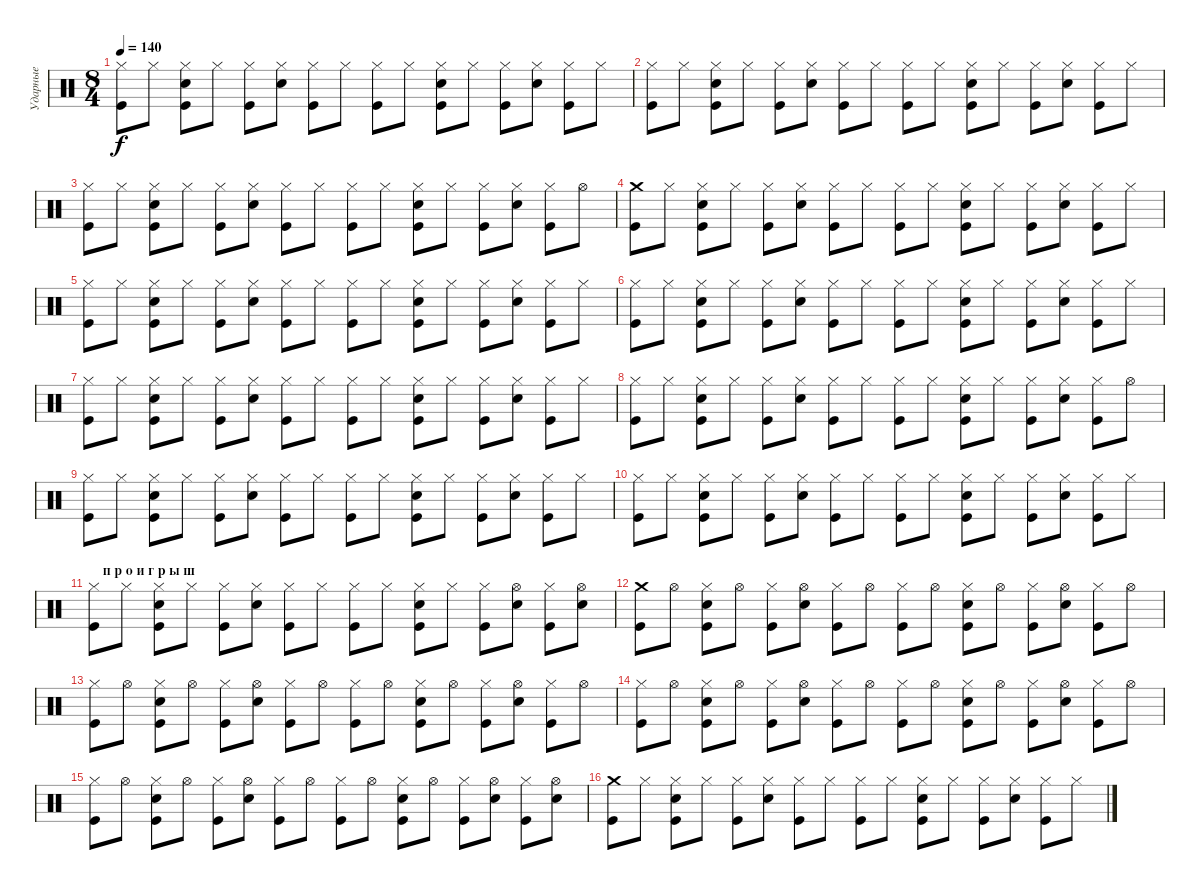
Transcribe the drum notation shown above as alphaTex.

\track ("Ударные" "Ударные") {instrument percussion}
\staff {score}
\articulation defaults
\ts (8 4)
\tempo 140
\clef neutral
\ks c
("Hi-Hat (closed)" "Kick (hit)").8{dy f} "Hi-Hat (closed)".8 ("Hi-Hat (closed)" "Electric Snare (hit)" "Kick (hit)").8 "Hi-Hat (closed)".8 ("Hi-Hat (closed)" "Kick (hit)").8 ("Hi-Hat (closed)" "Electric Snare (hit)").8 ("Hi-Hat (closed)" "Kick (hit)").8 "Hi-Hat (closed)".8 ("Hi-Hat (closed)" "Kick (hit)").8 "Hi-Hat (closed)".8 ("Hi-Hat (closed)" "Electric Snare (hit)" "Kick (hit)").8 "Hi-Hat (closed)".8 ("Hi-Hat (closed)" "Kick (hit)").8 ("Hi-Hat (closed)" "Electric Snare (hit)").8 ("Hi-Hat (closed)" "Kick (hit)").8 "Hi-Hat (closed)".8 |
("Hi-Hat (closed)" "Kick (hit)").8 "Hi-Hat (closed)".8 ("Hi-Hat (closed)" "Electric Snare (hit)" "Kick (hit)").8 "Hi-Hat (closed)".8 ("Hi-Hat (closed)" "Kick (hit)").8 ("Hi-Hat (closed)" "Electric Snare (hit)").8 ("Hi-Hat (closed)" "Kick (hit)").8 "Hi-Hat (closed)".8 ("Hi-Hat (closed)" "Kick (hit)").8 "Hi-Hat (closed)".8 ("Hi-Hat (closed)" "Electric Snare (hit)" "Kick (hit)").8 "Hi-Hat (closed)".8 ("Hi-Hat (closed)" "Kick (hit)").8 ("Hi-Hat (closed)" "Electric Snare (hit)").8 ("Hi-Hat (closed)" "Kick (hit)").8 "Hi-Hat (closed)".8 |
("Hi-Hat (closed)" "Kick (hit)").8 "Hi-Hat (closed)".8 ("Hi-Hat (closed)" "Electric Snare (hit)" "Kick (hit)").8 "Hi-Hat (closed)".8 ("Hi-Hat (closed)" "Kick (hit)").8 ("Hi-Hat (closed)" "Electric Snare (hit)").8 ("Hi-Hat (closed)" "Kick (hit)").8 "Hi-Hat (closed)".8 ("Hi-Hat (closed)" "Kick (hit)").8 "Hi-Hat (closed)".8 ("Hi-Hat (closed)" "Electric Snare (hit)" "Kick (hit)").8 "Hi-Hat (closed)".8 ("Hi-Hat (closed)" "Kick (hit)").8 ("Hi-Hat (closed)" "Electric Snare (hit)").8 ("Hi-Hat (closed)" "Kick (hit)").8 "Hi-Hat (open)".8 |
("Crash medium (hit)" "Kick (hit)").8 "Hi-Hat (closed)".8 ("Hi-Hat (closed)" "Electric Snare (hit)" "Kick (hit)").8 "Hi-Hat (closed)".8 ("Hi-Hat (closed)" "Kick (hit)").8 ("Hi-Hat (closed)" "Electric Snare (hit)").8 ("Hi-Hat (closed)" "Kick (hit)").8 "Hi-Hat (closed)".8 ("Hi-Hat (closed)" "Kick (hit)").8 "Hi-Hat (closed)".8 ("Hi-Hat (closed)" "Electric Snare (hit)" "Kick (hit)").8 "Hi-Hat (closed)".8 ("Hi-Hat (closed)" "Kick (hit)").8 ("Hi-Hat (closed)" "Electric Snare (hit)").8 ("Hi-Hat (closed)" "Kick (hit)").8 "Hi-Hat (closed)".8 |
("Hi-Hat (closed)" "Kick (hit)").8 "Hi-Hat (closed)".8 ("Hi-Hat (closed)" "Electric Snare (hit)" "Kick (hit)").8 "Hi-Hat (closed)".8 ("Hi-Hat (closed)" "Kick (hit)").8 ("Hi-Hat (closed)" "Electric Snare (hit)").8 ("Hi-Hat (closed)" "Kick (hit)").8 "Hi-Hat (closed)".8 ("Hi-Hat (closed)" "Kick (hit)").8 "Hi-Hat (closed)".8 ("Hi-Hat (closed)" "Electric Snare (hit)" "Kick (hit)").8 "Hi-Hat (closed)".8 ("Hi-Hat (closed)" "Kick (hit)").8 ("Hi-Hat (closed)" "Electric Snare (hit)").8 ("Hi-Hat (closed)" "Kick (hit)").8 "Hi-Hat (closed)".8 |
("Hi-Hat (closed)" "Kick (hit)").8 "Hi-Hat (closed)".8 ("Hi-Hat (closed)" "Electric Snare (hit)" "Kick (hit)").8 "Hi-Hat (closed)".8 ("Hi-Hat (closed)" "Kick (hit)").8 ("Hi-Hat (closed)" "Electric Snare (hit)").8 ("Hi-Hat (closed)" "Kick (hit)").8 "Hi-Hat (closed)".8 ("Hi-Hat (closed)" "Kick (hit)").8 "Hi-Hat (closed)".8 ("Hi-Hat (closed)" "Electric Snare (hit)" "Kick (hit)").8 "Hi-Hat (closed)".8 ("Hi-Hat (closed)" "Kick (hit)").8 ("Hi-Hat (closed)" "Electric Snare (hit)").8 ("Hi-Hat (closed)" "Kick (hit)").8 "Hi-Hat (closed)".8 |
("Hi-Hat (closed)" "Kick (hit)").8 "Hi-Hat (closed)".8 ("Hi-Hat (closed)" "Electric Snare (hit)" "Kick (hit)").8 "Hi-Hat (closed)".8 ("Hi-Hat (closed)" "Kick (hit)").8 ("Hi-Hat (closed)" "Electric Snare (hit)").8 ("Hi-Hat (closed)" "Kick (hit)").8 "Hi-Hat (closed)".8 ("Hi-Hat (closed)" "Kick (hit)").8 "Hi-Hat (closed)".8 ("Hi-Hat (closed)" "Electric Snare (hit)" "Kick (hit)").8 "Hi-Hat (closed)".8 ("Hi-Hat (closed)" "Kick (hit)").8 ("Hi-Hat (closed)" "Electric Snare (hit)").8 ("Hi-Hat (closed)" "Kick (hit)").8 "Hi-Hat (closed)".8 |
("Hi-Hat (closed)" "Kick (hit)").8 "Hi-Hat (closed)".8 ("Hi-Hat (closed)" "Electric Snare (hit)" "Kick (hit)").8 "Hi-Hat (closed)".8 ("Hi-Hat (closed)" "Kick (hit)").8 ("Hi-Hat (closed)" "Electric Snare (hit)").8 ("Hi-Hat (closed)" "Kick (hit)").8 "Hi-Hat (closed)".8 ("Hi-Hat (closed)" "Kick (hit)").8 "Hi-Hat (closed)".8 ("Hi-Hat (closed)" "Electric Snare (hit)" "Kick (hit)").8 "Hi-Hat (closed)".8 ("Hi-Hat (closed)" "Kick (hit)").8 ("Hi-Hat (closed)" "Electric Snare (hit)").8 ("Hi-Hat (closed)" "Kick (hit)").8 "Hi-Hat (open)".8 |
("Hi-Hat (closed)" "Kick (hit)").8 "Hi-Hat (closed)".8 ("Hi-Hat (closed)" "Electric Snare (hit)" "Kick (hit)").8 "Hi-Hat (closed)".8 ("Hi-Hat (closed)" "Kick (hit)").8 ("Hi-Hat (closed)" "Electric Snare (hit)").8 ("Hi-Hat (closed)" "Kick (hit)").8 "Hi-Hat (closed)".8 ("Hi-Hat (closed)" "Kick (hit)").8 "Hi-Hat (closed)".8 ("Hi-Hat (closed)" "Electric Snare (hit)" "Kick (hit)").8 "Hi-Hat (closed)".8 ("Hi-Hat (closed)" "Kick (hit)").8 ("Hi-Hat (closed)" "Electric Snare (hit)").8 ("Hi-Hat (closed)" "Kick (hit)").8 "Hi-Hat (closed)".8 |
("Hi-Hat (closed)" "Kick (hit)").8 "Hi-Hat (closed)".8 ("Hi-Hat (closed)" "Electric Snare (hit)" "Kick (hit)").8 "Hi-Hat (closed)".8 ("Hi-Hat (closed)" "Kick (hit)").8 ("Hi-Hat (closed)" "Electric Snare (hit)").8 ("Hi-Hat (closed)" "Kick (hit)").8 "Hi-Hat (closed)".8 ("Hi-Hat (closed)" "Kick (hit)").8 "Hi-Hat (closed)".8 ("Hi-Hat (closed)" "Electric Snare (hit)" "Kick (hit)").8 "Hi-Hat (closed)".8 ("Hi-Hat (closed)" "Kick (hit)").8 ("Hi-Hat (closed)" "Electric Snare (hit)").8 ("Hi-Hat (closed)" "Kick (hit)").8 "Hi-Hat (closed)".8 |
\section ("" "    п р о и г р ы ш")
("Hi-Hat (closed)" "Kick (hit)").8 "Hi-Hat (closed)".8 ("Hi-Hat (closed)" "Electric Snare (hit)" "Kick (hit)").8 "Hi-Hat (closed)".8 ("Hi-Hat (closed)" "Kick (hit)").8 ("Hi-Hat (closed)" "Electric Snare (hit)").8 ("Hi-Hat (closed)" "Kick (hit)").8 "Hi-Hat (closed)".8 ("Hi-Hat (closed)" "Kick (hit)").8 "Hi-Hat (closed)".8 ("Hi-Hat (closed)" "Electric Snare (hit)" "Kick (hit)").8 "Hi-Hat (closed)".8 ("Hi-Hat (closed)" "Kick (hit)").8 ("Hi-Hat (open)" "Electric Snare (hit)").8 ("Hi-Hat (closed)" "Kick (hit)").8 ("Hi-Hat (open)" "Electric Snare (hit)").8 |
("Crash medium (hit)" "Kick (hit)").8 "Hi-Hat (open)".8 ("Hi-Hat (closed)" "Electric Snare (hit)" "Kick (hit)").8 "Hi-Hat (open)".8 ("Hi-Hat (closed)" "Kick (hit)").8 ("Hi-Hat (open)" "Electric Snare (hit)").8 ("Hi-Hat (closed)" "Kick (hit)").8 "Hi-Hat (open)".8 ("Hi-Hat (closed)" "Kick (hit)").8 "Hi-Hat (open)".8 ("Hi-Hat (closed)" "Electric Snare (hit)" "Kick (hit)").8 "Hi-Hat (open)".8 ("Hi-Hat (closed)" "Kick (hit)").8 ("Hi-Hat (open)" "Electric Snare (hit)").8 ("Hi-Hat (closed)" "Kick (hit)").8 "Hi-Hat (open)".8 |
("Hi-Hat (closed)" "Kick (hit)").8 "Hi-Hat (open)".8 ("Hi-Hat (closed)" "Electric Snare (hit)" "Kick (hit)").8 "Hi-Hat (open)".8 ("Hi-Hat (closed)" "Kick (hit)").8 ("Hi-Hat (open)" "Electric Snare (hit)").8 ("Hi-Hat (closed)" "Kick (hit)").8 "Hi-Hat (open)".8 ("Hi-Hat (closed)" "Kick (hit)").8 "Hi-Hat (open)".8 ("Hi-Hat (closed)" "Electric Snare (hit)" "Kick (hit)").8 "Hi-Hat (open)".8 ("Hi-Hat (closed)" "Kick (hit)").8 ("Hi-Hat (open)" "Electric Snare (hit)").8 ("Hi-Hat (closed)" "Kick (hit)").8 "Hi-Hat (open)".8 |
("Hi-Hat (closed)" "Kick (hit)").8 "Hi-Hat (open)".8 ("Hi-Hat (closed)" "Electric Snare (hit)" "Kick (hit)").8 "Hi-Hat (open)".8 ("Hi-Hat (closed)" "Kick (hit)").8 ("Hi-Hat (open)" "Electric Snare (hit)").8 ("Hi-Hat (closed)" "Kick (hit)").8 "Hi-Hat (open)".8 ("Hi-Hat (closed)" "Kick (hit)").8 "Hi-Hat (open)".8 ("Hi-Hat (closed)" "Electric Snare (hit)" "Kick (hit)").8 "Hi-Hat (open)".8 ("Hi-Hat (closed)" "Kick (hit)").8 ("Hi-Hat (open)" "Electric Snare (hit)").8 ("Hi-Hat (closed)" "Kick (hit)").8 "Hi-Hat (open)".8 |
("Hi-Hat (closed)" "Kick (hit)").8 "Hi-Hat (open)".8 ("Hi-Hat (closed)" "Electric Snare (hit)" "Kick (hit)").8 "Hi-Hat (open)".8 ("Hi-Hat (closed)" "Kick (hit)").8 ("Hi-Hat (open)" "Electric Snare (hit)").8 ("Hi-Hat (closed)" "Kick (hit)").8 "Hi-Hat (open)".8 ("Hi-Hat (closed)" "Kick (hit)").8 "Hi-Hat (open)".8 ("Hi-Hat (closed)" "Electric Snare (hit)" "Kick (hit)").8 "Hi-Hat (open)".8 ("Hi-Hat (closed)" "Kick (hit)").8 ("Hi-Hat (open)" "Electric Snare (hit)").8 ("Hi-Hat (closed)" "Kick (hit)").8 ("Hi-Hat (open)" "Electric Snare (hit)").8 |
("Crash medium (hit)" "Kick (hit)").8 "Hi-Hat (closed)".8 ("Hi-Hat (closed)" "Electric Snare (hit)" "Kick (hit)").8 "Hi-Hat (closed)".8 ("Hi-Hat (closed)" "Kick (hit)").8 ("Hi-Hat (closed)" "Electric Snare (hit)").8 ("Hi-Hat (closed)" "Kick (hit)").8 "Hi-Hat (closed)".8 ("Hi-Hat (closed)" "Kick (hit)").8 "Hi-Hat (closed)".8 ("Hi-Hat (closed)" "Electric Snare (hit)" "Kick (hit)").8 "Hi-Hat (closed)".8 ("Hi-Hat (closed)" "Kick (hit)").8 ("Hi-Hat (closed)" "Electric Snare (hit)").8 ("Hi-Hat (closed)" "Kick (hit)").8 "Hi-Hat (closed)".8
